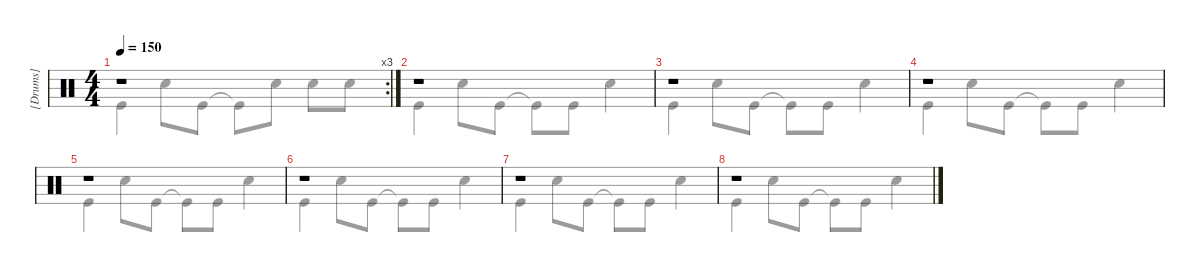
\hideDynamics
\bracketExtendMode groupsimilarinstruments
\firstSystemTrackNameMode fullname
\otherSystemsTrackNameMode fullname
\otherSystemsTrackNameOrientation horizontal
\track ("[Drums]" "Drums") {instrument percussion}
\staff {score}
\articulation defaults
\voice
\rc 3
\ts (4 4)
\tempo 150
\clef neutral
\ks c
r.1{dy mf} |
r.1 |
r.1 |
r.1 |
r.1 |
r.1 |
r.1 |
r.1
\voice
\clef neutral
\ottava regular
\simile none
\ks c "Kick (hit)".4{dy f} "Snare (hit) 2".8 "Kick (hit)".8 "Kick (hit)"{t}.8 "Snare (hit) 2".8 "Snare (hit) 2".8 "Snare (hit) 2".8
|
"Kick (hit)".4 "Snare (hit) 2".8 "Kick (hit)".8 "Kick (hit)"{t}.8 "Kick (hit)".8 "Snare (hit) 2".4 |
"Kick (hit)".4 "Snare (hit) 2".8 "Kick (hit)".8 "Kick (hit)"{t}.8 "Kick (hit)".8 "Snare (hit) 2".4 |
"Kick (hit)".4 "Snare (hit) 2".8 "Kick (hit)".8 "Kick (hit)"{t}.8 "Kick (hit)".8 "Snare (hit) 2".4 |
"Kick (hit)".4 "Snare (hit) 2".8 "Kick (hit)".8 "Kick (hit)"{t}.8 "Kick (hit)".8 "Snare (hit) 2".4 |
"Kick (hit)".4 "Snare (hit) 2".8 "Kick (hit)".8 "Kick (hit)"{t}.8 "Kick (hit)".8 "Snare (hit) 2".4 |
"Kick (hit)".4 "Snare (hit) 2".8 "Kick (hit)".8 "Kick (hit)"{t}.8 "Kick (hit)".8 "Snare (hit) 2".4 |
"Kick (hit)".4 "Snare (hit) 2".8 "Kick (hit)".8 "Kick (hit)"{t}.8 "Kick (hit)".8 "Snare (hit) 2".4
